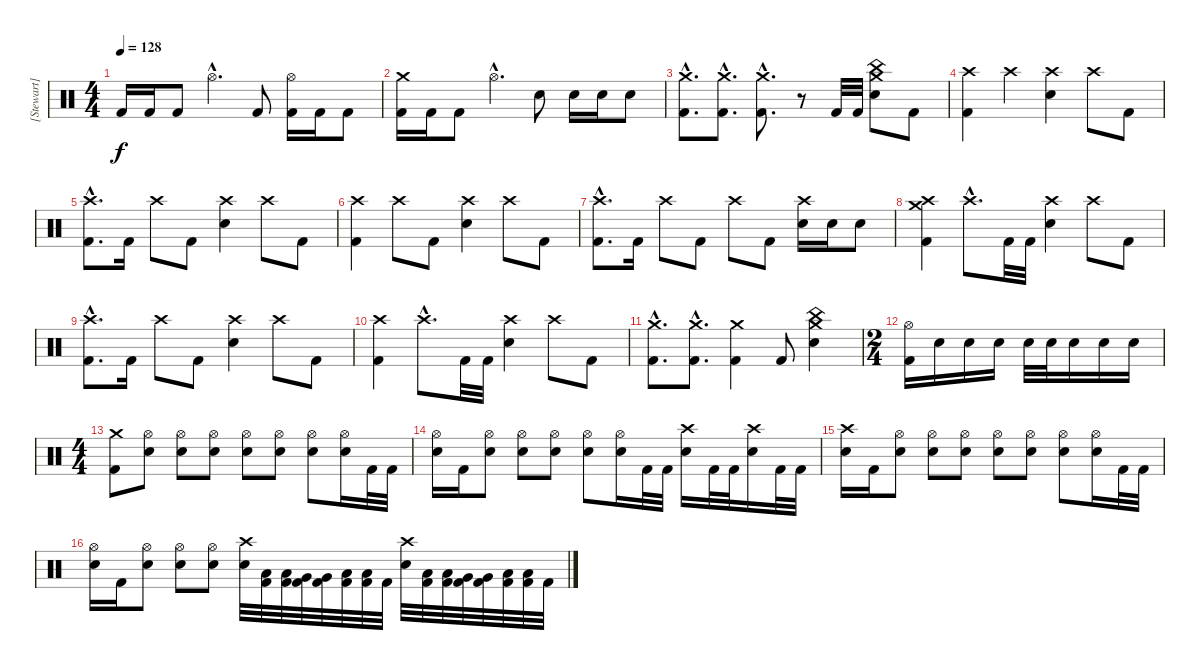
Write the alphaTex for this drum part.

\track ("[Stewart]" "[Stewart]") {instrument percussion}
\staff {score}
\articulation defaults
\ts (4 4)
\tempo 128
\clef neutral
\ks c "Kick (hit) 2".16{dy f} "Kick (hit) 2".16 "Kick (hit) 2".8 "Hi-Hat (open)"{hac}.4{d} "Kick (hit) 2".8
("Hi-Hat (open)" "Kick (hit) 2").16 "Kick (hit) 2".16 "Kick (hit) 2".8 |
("Crash medium (hit)" "Kick (hit) 2").16 "Kick (hit) 2".16 "Kick (hit) 2".8 "Hi-Hat (open)"{hac}.4{d} "Electric Snare (hit)".8 "Electric Snare (hit)".16 "Electric Snare (hit)".16 "Electric Snare (hit)".8 |
("Crash medium (hit)"{hac} "Kick (hit) 2"{hac}).8{d} ("Crash medium (hit)"{hac} "Kick (hit) 2"{hac}).8{d} ("Crash medium (hit)"{hac} "Kick (hit) 2"{hac}).8{d} r.8 "Kick (hit) 2".32 "Kick (hit) 2".32 ("Crash medium (hit)" "China (hit)" "Electric Snare (hit)").8 "Kick (hit) 2".8 |
("Crash high (hit)" "Kick (hit) 2").4 "Crash high (hit)".4 ("Crash high (hit)" "Electric Snare (hit)").4 "Crash high (hit)".8 "Kick (hit) 2".8 |
("Crash high (hit)"{hac} "Kick (hit) 2"{hac}).8{d} "Kick (hit) 2".16 "Crash high (hit)".8 "Kick (hit) 2".8 ("Crash high (hit)" "Electric Snare (hit)").4 "Crash high (hit)".8 "Kick (hit) 2".8 |
("Crash high (hit)" "Kick (hit) 2").4 "Crash high (hit)".8 "Kick (hit) 2".8 ("Crash high (hit)" "Electric Snare (hit)").4 "Crash high (hit)".8 "Kick (hit) 2".8 |
("Crash high (hit)"{hac} "Kick (hit) 2"{hac}).8{d} "Kick (hit) 2".16 "Crash high (hit)".8 "Kick (hit) 2".8 "Crash high (hit)".8 "Kick (hit) 2".8 ("Crash high (hit)" "Electric Snare (hit)").16 "Electric Snare (hit)".16 "Electric Snare (hit)".8 |
("Crash high (hit)" "Crash medium (hit)" "Kick (hit) 2").4 "Crash high (hit)"{hac}.8{d} "Kick (hit) 2".32 "Kick (hit) 2".32 ("Crash high (hit)" "Electric Snare (hit)").4 "Crash high (hit)".8 "Kick (hit) 2".8 |
("Crash high (hit)"{hac} "Kick (hit) 2"{hac}).8{d} "Kick (hit) 2".16 "Crash high (hit)".8 "Kick (hit) 2".8 ("Crash high (hit)" "Electric Snare (hit)").4 "Crash high (hit)".8 "Kick (hit) 2".8 |
("Crash high (hit)" "Kick (hit) 2").4 "Crash high (hit)"{hac}.8{d} "Kick (hit) 2".32 "Kick (hit) 2".32 ("Crash high (hit)" "Electric Snare (hit)").4 "Crash high (hit)".8 "Kick (hit) 2".8 |
("Crash medium (hit)"{hac} "Kick (hit) 2"{hac}).8{d} ("Crash medium (hit)"{hac} "Kick (hit) 2"{hac}).8{d} ("Crash medium (hit)" "Kick (hit) 2").4 "Kick (hit) 2".8 ("Crash medium (hit)" "China (hit)" "Electric Snare (hit)").4 |
\ts (2 4)
("Hi-Hat (open)" "Kick (hit) 2").16 "Electric Snare (hit)".16 "Electric Snare (hit)".16 "Electric Snare (hit)".16 "Electric Snare (hit)".32 "Electric Snare (hit)".32 "Electric Snare (hit)".16 "Electric Snare (hit)".16 "Electric Snare (hit)".16 |
\ts (4 4)
("Crash medium (hit)" "Kick (hit) 2").8 ("Hi-Hat (open)" "Electric Snare (hit)").8 ("Hi-Hat (open)" "Electric Snare (hit)").8 ("Hi-Hat (open)" "Electric Snare (hit)").8 ("Hi-Hat (open)" "Electric Snare (hit)").8 ("Hi-Hat (open)" "Electric Snare (hit)").8 ("Hi-Hat (open)" "Electric Snare (hit)").8 ("Hi-Hat (open)" "Electric Snare (hit)").16 "Kick (hit) 2".32 "Kick (hit) 2".32 |
("Hi-Hat (open)" "Electric Snare (hit)").16 "Kick (hit) 2".16 ("Hi-Hat (open)" "Electric Snare (hit)").8 ("Hi-Hat (open)" "Electric Snare (hit)").8 ("Hi-Hat (open)" "Electric Snare (hit)").8 ("Hi-Hat (open)" "Electric Snare (hit)").8 ("Hi-Hat (open)" "Electric Snare (hit)").16 "Kick (hit) 2".32 "Kick (hit) 2".32 ("Crash high (hit)" "Electric Snare (hit)").16 "Kick (hit) 2".32 "Kick (hit) 2".32 ("Crash high (hit)" "Electric Snare (hit)").16 "Kick (hit) 2".32 "Kick (hit) 2".32 |
("Crash high (hit)" "Electric Snare (hit)").16 "Kick (hit) 2".16 ("Hi-Hat (open)" "Electric Snare (hit)").8 ("Hi-Hat (open)" "Electric Snare (hit)").8 ("Hi-Hat (open)" "Electric Snare (hit)").8 ("Hi-Hat (open)" "Electric Snare (hit)").8 ("Hi-Hat (open)" "Electric Snare (hit)").8 ("Hi-Hat (open)" "Electric Snare (hit)").8 ("Hi-Hat (open)" "Electric Snare (hit)").16 "Kick (hit) 2".32 "Kick (hit) 2".32 |
("Hi-Hat (open)" "Electric Snare (hit)").16 "Kick (hit) 2".16 ("Hi-Hat (open)" "Electric Snare (hit)").8 ("Hi-Hat (open)" "Electric Snare (hit)").8 ("Hi-Hat (open)" "Electric Snare (hit)").8 ("Crash high (hit)" "Electric Snare (hit)").32 ("Low Tom (hit)" "Kick (hit) 2").32 ("Low Tom (hit)" "Kick (hit) 2").32 ("Very Low Tom (hit)" "Kick (hit) 2").32 ("Very Low Tom (hit)" "Kick (hit) 2").32 ("Low Tom (hit)" "Kick (hit) 2").32 ("Low Tom (hit)" "Kick (hit) 2").32 "Kick (hit) 2".32 ("Crash high (hit)" "Electric Snare (hit)").32 ("Low Tom (hit)" "Kick (hit) 2").32 ("Low Tom (hit)" "Kick (hit) 2").32 ("Very Low Tom (hit)" "Kick (hit) 2").32 ("Very Low Tom (hit)" "Kick (hit) 2").32 ("Low Tom (hit)" "Kick (hit) 2").32 ("Low Tom (hit)" "Kick (hit) 2").32 "Kick (hit) 2".32
